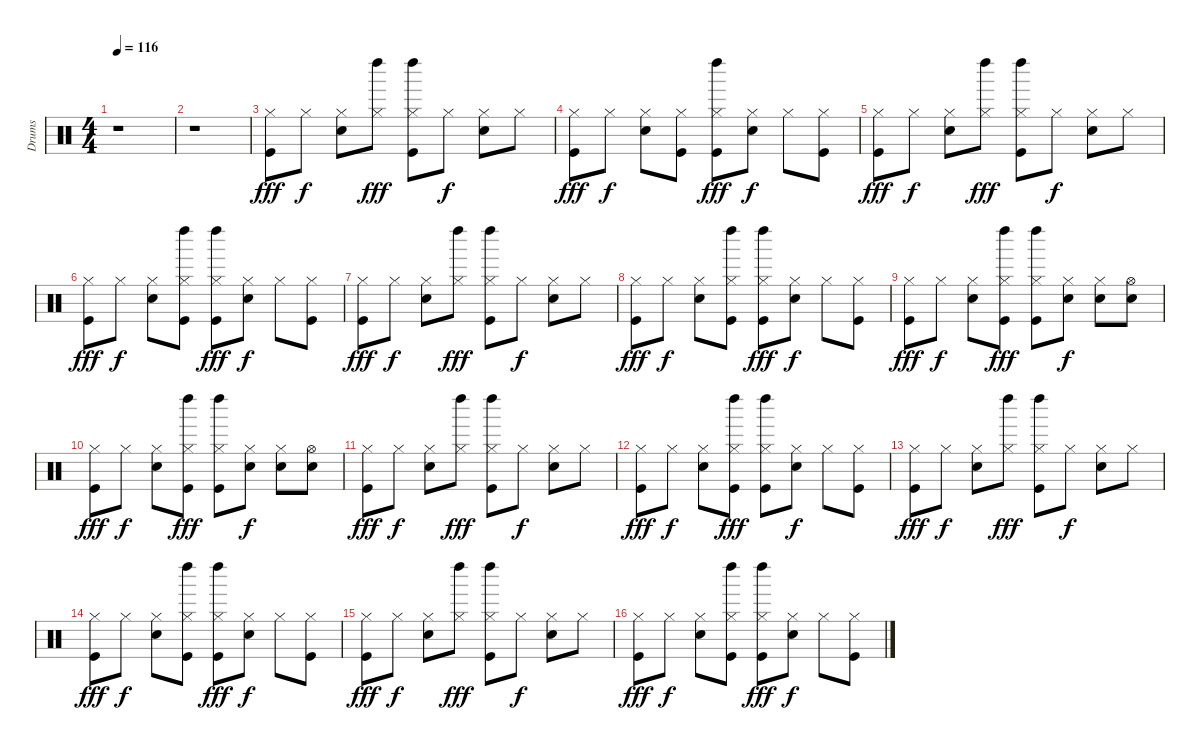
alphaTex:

\track ("Drums" "Drums") {instrument percussion}
\staff {score}
\articulation defaults
\ts (4 4)
\tempo 116
\clef neutral
\ks c
r.1{dy fff} |
r.1 |
("Hi-Hat (closed)" "Kick (hit)").8 "Hi-Hat (closed)".8{dy f} ("Hi-Hat (closed)" "Snare (hit) 2").8 ("Hi-Hat (closed)" "Left Maraca (hit)").8{dy fff} ("Hi-Hat (closed)" "Left Maraca (hit)" "Kick (hit)").8 "Hi-Hat (closed)".8{dy f} ("Hi-Hat (closed)" "Snare (hit) 2").8 "Hi-Hat (closed)".8 |
("Hi-Hat (closed)" "Kick (hit)").8{dy fff} "Hi-Hat (closed)".8{dy f} ("Hi-Hat (closed)" "Snare (hit) 2").8 ("Hi-Hat (closed)" "Kick (hit)").8 ("Hi-Hat (closed)" "Left Maraca (hit)" "Kick (hit)").8{dy fff} ("Hi-Hat (closed)" "Snare (hit) 2").8{dy f} "Hi-Hat (closed)".8 ("Hi-Hat (closed)" "Kick (hit)").8 |
("Hi-Hat (closed)" "Kick (hit)").8{dy fff} "Hi-Hat (closed)".8{dy f} ("Hi-Hat (closed)" "Snare (hit) 2").8 ("Hi-Hat (closed)" "Left Maraca (hit)").8{dy fff} ("Hi-Hat (closed)" "Left Maraca (hit)" "Kick (hit)").8 "Hi-Hat (closed)".8{dy f} ("Hi-Hat (closed)" "Snare (hit) 2").8 "Hi-Hat (closed)".8 |
("Hi-Hat (closed)" "Kick (hit)").8{dy fff} "Hi-Hat (closed)".8{dy f} ("Hi-Hat (closed)" "Snare (hit) 2").8 ("Hi-Hat (closed)" "Left Maraca (hit)" "Kick (hit)").8 ("Hi-Hat (closed)" "Left Maraca (hit)" "Kick (hit)").8{dy fff} ("Hi-Hat (closed)" "Snare (hit) 2").8{dy f} "Hi-Hat (closed)".8 ("Hi-Hat (closed)" "Kick (hit)").8 |
("Hi-Hat (closed)" "Kick (hit)").8{dy fff} "Hi-Hat (closed)".8{dy f} ("Hi-Hat (closed)" "Snare (hit) 2").8 ("Hi-Hat (closed)" "Left Maraca (hit)").8{dy fff} ("Hi-Hat (closed)" "Left Maraca (hit)" "Kick (hit)").8 "Hi-Hat (closed)".8{dy f} ("Hi-Hat (closed)" "Snare (hit) 2").8 "Hi-Hat (closed)".8 |
("Hi-Hat (closed)" "Kick (hit)").8{dy fff} "Hi-Hat (closed)".8{dy f} ("Hi-Hat (closed)" "Snare (hit) 2").8 ("Hi-Hat (closed)" "Left Maraca (hit)" "Kick (hit)").8 ("Hi-Hat (closed)" "Left Maraca (hit)" "Kick (hit)").8{dy fff} ("Hi-Hat (closed)" "Snare (hit) 2").8{dy f} "Hi-Hat (closed)".8 ("Hi-Hat (closed)" "Kick (hit)").8 |
("Hi-Hat (closed)" "Kick (hit)").8{dy fff} "Hi-Hat (closed)".8{dy f} ("Hi-Hat (closed)" "Snare (hit) 2").8 ("Hi-Hat (closed)" "Left Maraca (hit)" "Kick (hit)").8{dy fff} ("Hi-Hat (closed)" "Left Maraca (hit)" "Kick (hit)").8 ("Hi-Hat (closed)" "Snare (hit) 2").8{dy f} ("Hi-Hat (closed)" "Snare (hit) 2").8 ("Hi-Hat (open)" "Snare (hit) 2").8 |
("Hi-Hat (closed)" "Kick (hit)").8{dy fff} "Hi-Hat (closed)".8{dy f} ("Hi-Hat (closed)" "Snare (hit) 2").8 ("Hi-Hat (closed)" "Left Maraca (hit)" "Kick (hit)").8{dy fff} ("Hi-Hat (closed)" "Left Maraca (hit)" "Kick (hit)").8 ("Hi-Hat (closed)" "Snare (hit) 2").8{dy f} ("Hi-Hat (closed)" "Snare (hit) 2").8 ("Hi-Hat (open)" "Snare (hit) 2").8 |
("Hi-Hat (closed)" "Kick (hit)").8{dy fff} "Hi-Hat (closed)".8{dy f} ("Hi-Hat (closed)" "Snare (hit) 2").8 ("Hi-Hat (closed)" "Left Maraca (hit)").8{dy fff} ("Hi-Hat (closed)" "Left Maraca (hit)" "Kick (hit)").8 "Hi-Hat (closed)".8{dy f} ("Hi-Hat (closed)" "Snare (hit) 2").8 "Hi-Hat (closed)".8 |
("Hi-Hat (closed)" "Kick (hit)").8{dy fff} "Hi-Hat (closed)".8{dy f} ("Hi-Hat (closed)" "Snare (hit) 2").8 ("Hi-Hat (closed)" "Left Maraca (hit)" "Kick (hit)").8{dy fff} ("Hi-Hat (closed)" "Left Maraca (hit)" "Kick (hit)").8 ("Hi-Hat (closed)" "Snare (hit) 2").8{dy f} "Hi-Hat (closed)".8 ("Hi-Hat (closed)" "Kick (hit)").8 |
("Hi-Hat (closed)" "Kick (hit)").8{dy fff} "Hi-Hat (closed)".8{dy f} ("Hi-Hat (closed)" "Snare (hit) 2").8 ("Hi-Hat (closed)" "Left Maraca (hit)").8{dy fff} ("Hi-Hat (closed)" "Left Maraca (hit)" "Kick (hit)").8 "Hi-Hat (closed)".8{dy f} ("Hi-Hat (closed)" "Snare (hit) 2").8 "Hi-Hat (closed)".8 |
("Hi-Hat (closed)" "Kick (hit)").8{dy fff} "Hi-Hat (closed)".8{dy f} ("Hi-Hat (closed)" "Snare (hit) 2").8 ("Hi-Hat (closed)" "Left Maraca (hit)" "Kick (hit)").8 ("Hi-Hat (closed)" "Left Maraca (hit)" "Kick (hit)").8{dy fff} ("Hi-Hat (closed)" "Snare (hit) 2").8{dy f} "Hi-Hat (closed)".8 ("Hi-Hat (closed)" "Kick (hit)").8 |
("Hi-Hat (closed)" "Kick (hit)").8{dy fff} "Hi-Hat (closed)".8{dy f} ("Hi-Hat (closed)" "Snare (hit) 2").8 ("Hi-Hat (closed)" "Left Maraca (hit)").8{dy fff} ("Hi-Hat (closed)" "Left Maraca (hit)" "Kick (hit)").8 "Hi-Hat (closed)".8{dy f} ("Hi-Hat (closed)" "Snare (hit) 2").8 "Hi-Hat (closed)".8 |
("Hi-Hat (closed)" "Kick (hit)").8{dy fff} "Hi-Hat (closed)".8{dy f} ("Hi-Hat (closed)" "Snare (hit) 2").8 ("Hi-Hat (closed)" "Left Maraca (hit)" "Kick (hit)").8 ("Hi-Hat (closed)" "Left Maraca (hit)" "Kick (hit)").8{dy fff} ("Hi-Hat (closed)" "Snare (hit) 2").8{dy f} "Hi-Hat (closed)".8 ("Hi-Hat (closed)" "Kick (hit)").8
